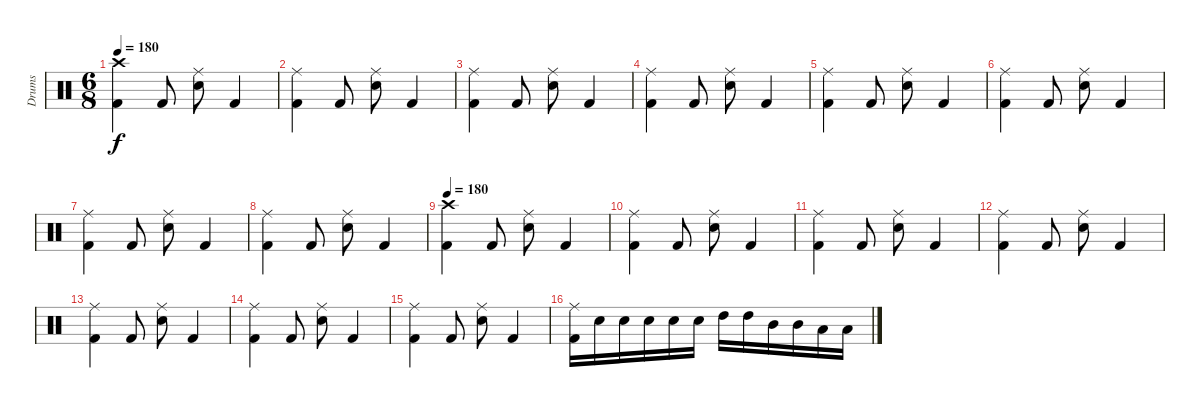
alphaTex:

\track ("Drums" "Drums") {instrument percussion}
\staff {score}
\articulation defaults
\ts (6 8)
\tempo 180
\clef neutral
\ks c
("Crash high (hit)" "Kick (hit) 2").4{dy f} "Kick (hit) 2".8 ("Ride (middle)" "Electric Snare (hit)").8 "Kick (hit) 2".4 |
("Ride (middle)" "Kick (hit) 2").4 "Kick (hit) 2".8 ("Ride (middle)" "Electric Snare (hit)").8 "Kick (hit) 2".4 |
("Ride (middle)" "Kick (hit) 2").4 "Kick (hit) 2".8 ("Ride (middle)" "Electric Snare (hit)").8 "Kick (hit) 2".4 |
("Ride (middle)" "Kick (hit) 2").4 "Kick (hit) 2".8 ("Ride (middle)" "Electric Snare (hit)").8 "Kick (hit) 2".4 |
("Ride (middle)" "Kick (hit) 2").4 "Kick (hit) 2".8 ("Ride (middle)" "Electric Snare (hit)").8 "Kick (hit) 2".4 |
("Ride (middle)" "Kick (hit) 2").4 "Kick (hit) 2".8 ("Ride (middle)" "Electric Snare (hit)").8 "Kick (hit) 2".4 |
("Ride (middle)" "Kick (hit) 2").4 "Kick (hit) 2".8 ("Ride (middle)" "Electric Snare (hit)").8 "Kick (hit) 2".4 |
("Ride (middle)" "Kick (hit) 2").4 "Kick (hit) 2".8 ("Ride (middle)" "Electric Snare (hit)").8 "Kick (hit) 2".4 |
\tempo 180
("Crash high (hit)" "Kick (hit) 2").4 "Kick (hit) 2".8 ("Ride (middle)" "Electric Snare (hit)").8 "Kick (hit) 2".4 |
("Ride (middle)" "Kick (hit) 2").4 "Kick (hit) 2".8 ("Ride (middle)" "Electric Snare (hit)").8 "Kick (hit) 2".4 |
("Ride (middle)" "Kick (hit) 2").4 "Kick (hit) 2".8 ("Ride (middle)" "Electric Snare (hit)").8 "Kick (hit) 2".4 |
("Ride (middle)" "Kick (hit) 2").4 "Kick (hit) 2".8 ("Ride (middle)" "Electric Snare (hit)").8 "Kick (hit) 2".4 |
("Ride (middle)" "Kick (hit) 2").4 "Kick (hit) 2".8 ("Ride (middle)" "Electric Snare (hit)").8 "Kick (hit) 2".4 |
("Ride (middle)" "Kick (hit) 2").4 "Kick (hit) 2".8 ("Ride (middle)" "Electric Snare (hit)").8 "Kick (hit) 2".4 |
("Ride (middle)" "Kick (hit) 2").4 "Kick (hit) 2".8 ("Ride (middle)" "Electric Snare (hit)").8 "Kick (hit) 2".4 |
("Ride (middle)" "Kick (hit) 2").16 "Electric Snare (hit)".16 "Electric Snare (hit)".16 "Electric Snare (hit)".16 "Electric Snare (hit)".16 "Electric Snare (hit)".16 "High Tom (hit)".16 "High Tom (hit)".16 "Mid Tom (hit)".16 "Mid Tom (hit)".16 "Low Tom (hit)".16 "Low Tom (hit)".16
